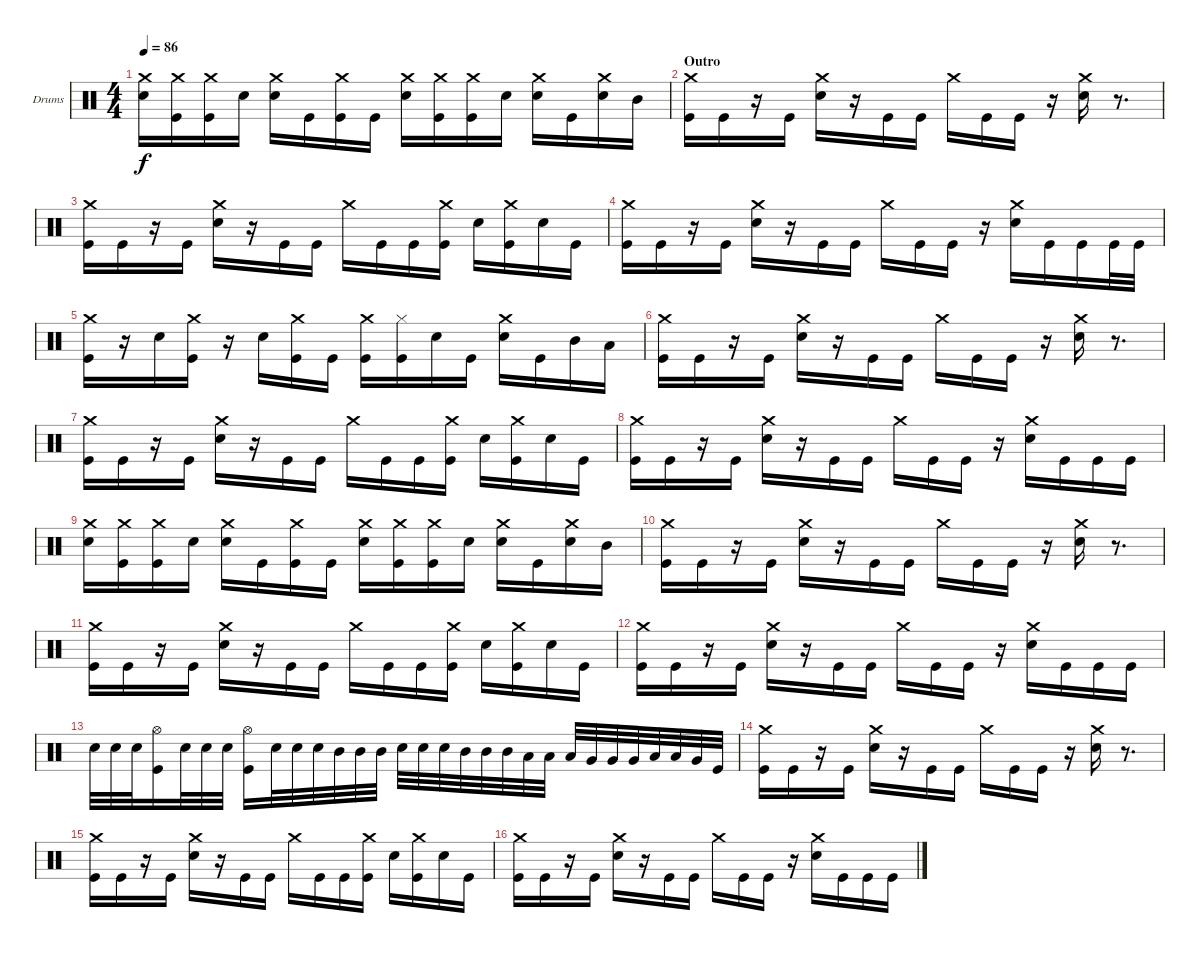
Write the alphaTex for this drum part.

\bracketExtendMode groupsimilarinstruments
\firstSystemTrackNameOrientation horizontal
\otherSystemsTrackNameOrientation horizontal
\track ("Drumkit" "Drums") {instrument percussion}
\staff {score}
\articulation defaults
\ts (4 4)
\tempo 86
\clef neutral
\ks c
("Snare (hit) 2" "Crash medium (hit)").16{dy f} ("Kick (hit)" "Crash medium (hit)").16 ("Kick (hit)" "Crash medium (hit)").16 "Snare (hit) 2".16 ("Crash medium (hit)" "Snare (hit) 2").16 "Kick (hit)".16 ("Kick (hit)" "Crash medium (hit)").16 "Kick (hit)".16 ("Snare (hit) 2" "Crash medium (hit)").16 ("Kick (hit)" "Crash medium (hit)").16 ("Kick (hit)" "Crash medium (hit)").16 "Snare (hit) 2".16 ("Crash medium (hit)" "Snare (hit) 2").16 "Kick (hit)".16 ("Crash medium (hit)" "Snare (hit) 2").16 "Mid Tom (hit)".16 |
\section ("" "Outro")
("Crash medium (hit)" "Kick (hit)").16 "Kick (hit)".16 r.16 "Kick (hit)".16 ("Crash medium (hit)" "Snare (hit) 2").16 r.16 "Kick (hit)".16 "Kick (hit)".16 "Crash medium (hit)".16 "Kick (hit)".16 "Kick (hit)".16 r.16 ("Crash medium (hit)" "Snare (hit) 2").16 r.8{d} |
("Crash medium (hit)" "Kick (hit)").16 "Kick (hit)".16 r.16 "Kick (hit)".16 ("Crash medium (hit)" "Snare (hit) 2").16 r.16 "Kick (hit)".16 "Kick (hit)".16 "Crash medium (hit)".16 "Kick (hit)".16 "Kick (hit)".16 ("Kick (hit)" "Crash medium (hit)").16 "Snare (hit) 2".16 ("Kick (hit)" "Crash medium (hit)").16 "Snare (hit) 2".16 "Kick (hit)".16 |
("Kick (hit)" "Crash medium (hit)").16 "Kick (hit)".16 r.16 "Kick (hit)".16 ("Snare (hit) 2" "Crash medium (hit)").16 r.16 "Kick (hit)".16 "Kick (hit)".16 "Crash medium (hit)".16 "Kick (hit)".16 "Kick (hit)".16 r.16 ("Snare (hit) 2" "Crash medium (hit)").16 "Kick (hit)".16 "Kick (hit)".16 "Kick (hit)".32 "Kick (hit)".32 |
("Kick (hit)" "Crash medium (hit)").16 r.16 "Snare (hit) 2".16 ("Kick (hit)" "Crash medium (hit)").16 r.16 "Snare (hit) 2".16 ("Kick (hit)" "Crash medium (hit)").16 "Kick (hit)".16 ("Kick (hit)" "Crash medium (hit)").16 ("Hi-Hat (closed)" "Kick (hit)").16 "Snare (hit) 2".16 "Kick (hit)".16 ("Snare (hit) 2" "Crash medium (hit)").16 "Kick (hit)".16 "Mid Tom (hit)".16 "Low Tom (hit)".16 |
("Crash medium (hit)" "Kick (hit)").16 "Kick (hit)".16 r.16 "Kick (hit)".16 ("Crash medium (hit)" "Snare (hit) 2").16 r.16 "Kick (hit)".16 "Kick (hit)".16 "Crash medium (hit)".16 "Kick (hit)".16 "Kick (hit)".16 r.16 ("Crash medium (hit)" "Snare (hit) 2").16 r.8{d} |
("Crash medium (hit)" "Kick (hit)").16 "Kick (hit)".16 r.16 "Kick (hit)".16 ("Crash medium (hit)" "Snare (hit) 2").16 r.16 "Kick (hit)".16 "Kick (hit)".16 "Crash medium (hit)".16 "Kick (hit)".16 "Kick (hit)".16 ("Kick (hit)" "Crash medium (hit)").16 "Snare (hit) 2".16 ("Kick (hit)" "Crash medium (hit)").16 "Snare (hit) 2".16 "Kick (hit)".16 |
("Kick (hit)" "Crash medium (hit)").16 "Kick (hit)".16 r.16 "Kick (hit)".16 ("Snare (hit) 2" "Crash medium (hit)").16 r.16 "Kick (hit)".16 "Kick (hit)".16 "Crash medium (hit)".16 "Kick (hit)".16 "Kick (hit)".16 r.16 ("Snare (hit) 2" "Crash medium (hit)").16 "Kick (hit)".16 "Kick (hit)".16 "Kick (hit)".16 |
("Snare (hit) 2" "Crash medium (hit)").16 ("Kick (hit)" "Crash medium (hit)").16 ("Kick (hit)" "Crash medium (hit)").16 "Snare (hit) 2".16 ("Crash medium (hit)" "Snare (hit) 2").16 "Kick (hit)".16 ("Kick (hit)" "Crash medium (hit)").16 "Kick (hit)".16 ("Snare (hit) 2" "Crash medium (hit)").16 ("Kick (hit)" "Crash medium (hit)").16 ("Kick (hit)" "Crash medium (hit)").16 "Snare (hit) 2".16 ("Crash medium (hit)" "Snare (hit) 2").16 "Kick (hit)".16 ("Crash medium (hit)" "Snare (hit) 2").16 "Mid Tom (hit)".16 |
("Crash medium (hit)" "Kick (hit)").16 "Kick (hit)".16 r.16 "Kick (hit)".16 ("Crash medium (hit)" "Snare (hit) 2").16 r.16 "Kick (hit)".16 "Kick (hit)".16 "Crash medium (hit)".16 "Kick (hit)".16 "Kick (hit)".16 r.16 ("Crash medium (hit)" "Snare (hit) 2").16 r.8{d} |
("Crash medium (hit)" "Kick (hit)").16 "Kick (hit)".16 r.16 "Kick (hit)".16 ("Crash medium (hit)" "Snare (hit) 2").16 r.16 "Kick (hit)".16 "Kick (hit)".16 "Crash medium (hit)".16 "Kick (hit)".16 "Kick (hit)".16 ("Kick (hit)" "Crash medium (hit)").16 "Snare (hit) 2".16 ("Kick (hit)" "Crash medium (hit)").16 "Snare (hit) 2".16 "Kick (hit)".16 |
("Kick (hit)" "Crash medium (hit)").16 "Kick (hit)".16 r.16 "Kick (hit)".16 ("Snare (hit) 2" "Crash medium (hit)").16 r.16 "Kick (hit)".16 "Kick (hit)".16 "Crash medium (hit)".16 "Kick (hit)".16 "Kick (hit)".16 r.16 ("Snare (hit) 2" "Crash medium (hit)").16 "Kick (hit)".16 "Kick (hit)".16 "Kick (hit)".16 |
"Snare (hit) 2".32 "Snare (hit) 2".32 "Snare (hit) 2".32 ("Kick (hit)" "Hi-Hat (open)").16 "Snare (hit) 2".32 "Snare (hit) 2".32 "Snare (hit) 2".32 ("Kick (hit)" "Hi-Hat (open)").16 "Snare (hit) 2".32 "Snare (hit) 2".32 "Snare (hit) 2".32 "Mid Tom (hit)".32 "Mid Tom (hit)".32 "Mid Tom (hit)".32 "Snare (hit) 2".32 "Snare (hit) 2".32 "Snare (hit) 2".32 "Mid Tom (hit)".32 "Mid Tom (hit)".32 "Mid Tom (hit)".32 "Low Tom (hit)".32 "Low Tom (hit)".32 "Low Tom (hit)".32 "Very Low Tom (hit)".32 "Very Low Tom (hit)".32 "Very Low Tom (hit)".32 "Low Tom (hit)".32 "Low Tom (hit)".32 "Very Low Tom (hit)".32 "Kick (hit)".32 |
("Crash medium (hit)" "Kick (hit)").16 "Kick (hit)".16 r.16 "Kick (hit)".16 ("Crash medium (hit)" "Snare (hit) 2").16 r.16 "Kick (hit)".16 "Kick (hit)".16 "Crash medium (hit)".16 "Kick (hit)".16 "Kick (hit)".16 r.16 ("Crash medium (hit)" "Snare (hit) 2").16 r.8{d} |
("Crash medium (hit)" "Kick (hit)").16 "Kick (hit)".16 r.16 "Kick (hit)".16 ("Crash medium (hit)" "Snare (hit) 2").16 r.16 "Kick (hit)".16 "Kick (hit)".16 "Crash medium (hit)".16 "Kick (hit)".16 "Kick (hit)".16 ("Kick (hit)" "Crash medium (hit)").16 "Snare (hit) 2".16 ("Kick (hit)" "Crash medium (hit)").16 "Snare (hit) 2".16 "Kick (hit)".16 |
("Kick (hit)" "Crash medium (hit)").16 "Kick (hit)".16 r.16 "Kick (hit)".16 ("Snare (hit) 2" "Crash medium (hit)").16 r.16 "Kick (hit)".16 "Kick (hit)".16 "Crash medium (hit)".16 "Kick (hit)".16 "Kick (hit)".16 r.16 ("Snare (hit) 2" "Crash medium (hit)").16 "Kick (hit)".16 "Kick (hit)".16 "Kick (hit)".16
